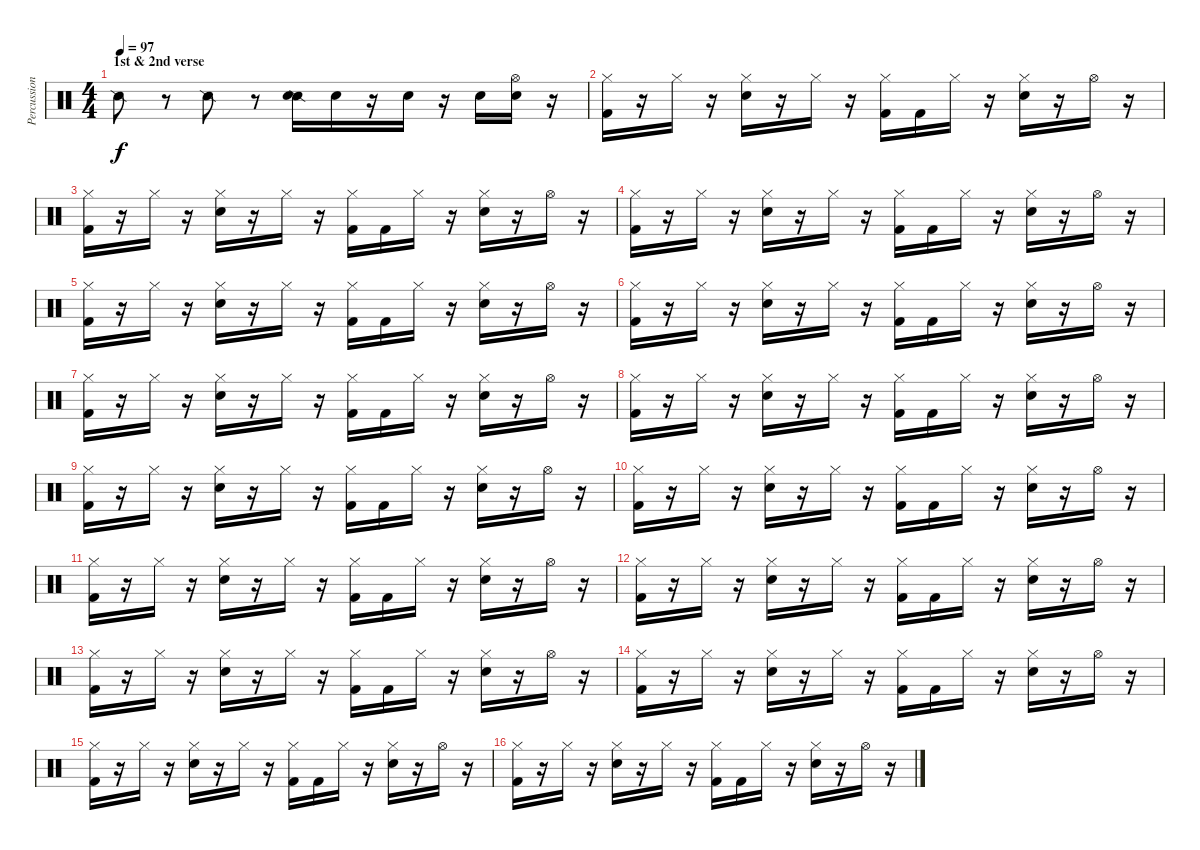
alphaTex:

\track ("Percussion" "Percussion") {instrument percussion}
\staff {score}
\articulation defaults
\ts (4 4)
\section ("" "1st & 2nd verse")
\tempo 97
\clef neutral
\ks c "Snare (side stick) 2".8{dy f}
r.8 "Snare (side stick) 2".8 r.8 ("Snare (side stick) 2" "Snare (hit) 2").16 "Snare (hit) 2".16 r.16 "Snare (hit) 2".16 r.16 "Snare (hit) 2".16 ("Hi-Hat (open)" "Snare (hit) 2").16 r.16 |
("Hi-Hat (closed)" "Kick (hit) 2").16 r.16 "Hi-Hat (closed)".16 r.16 ("Hi-Hat (closed)" "Snare (hit) 2").16 r.16 "Hi-Hat (closed)".16 r.16 ("Hi-Hat (closed)" "Kick (hit) 2").16 "Kick (hit) 2".16 "Hi-Hat (closed)".16 r.16 ("Hi-Hat (closed)" "Snare (hit) 2").16 r.16 "Hi-Hat (open)".16 r.16 |
("Hi-Hat (closed)" "Kick (hit) 2").16 r.16 "Hi-Hat (closed)".16 r.16 ("Hi-Hat (closed)" "Snare (hit) 2").16 r.16 "Hi-Hat (closed)".16 r.16 ("Hi-Hat (closed)" "Kick (hit) 2").16 "Kick (hit) 2".16 "Hi-Hat (closed)".16 r.16 ("Hi-Hat (closed)" "Snare (hit) 2").16 r.16 "Hi-Hat (open)".16 r.16 |
("Hi-Hat (closed)" "Kick (hit) 2").16 r.16 "Hi-Hat (closed)".16 r.16 ("Hi-Hat (closed)" "Snare (hit) 2").16 r.16 "Hi-Hat (closed)".16 r.16 ("Hi-Hat (closed)" "Kick (hit) 2").16 "Kick (hit) 2".16 "Hi-Hat (closed)".16 r.16 ("Hi-Hat (closed)" "Snare (hit) 2").16 r.16 "Hi-Hat (open)".16 r.16 |
("Hi-Hat (closed)" "Kick (hit) 2").16 r.16 "Hi-Hat (closed)".16 r.16 ("Hi-Hat (closed)" "Snare (hit) 2").16 r.16 "Hi-Hat (closed)".16 r.16 ("Hi-Hat (closed)" "Kick (hit) 2").16 "Kick (hit) 2".16 "Hi-Hat (closed)".16 r.16 ("Hi-Hat (closed)" "Snare (hit) 2").16 r.16 "Hi-Hat (open)".16 r.16 |
("Hi-Hat (closed)" "Kick (hit) 2").16 r.16 "Hi-Hat (closed)".16 r.16 ("Hi-Hat (closed)" "Snare (hit) 2").16 r.16 "Hi-Hat (closed)".16 r.16 ("Hi-Hat (closed)" "Kick (hit) 2").16 "Kick (hit) 2".16 "Hi-Hat (closed)".16 r.16 ("Hi-Hat (closed)" "Snare (hit) 2").16 r.16 "Hi-Hat (open)".16 r.16 |
("Hi-Hat (closed)" "Kick (hit) 2").16 r.16 "Hi-Hat (closed)".16 r.16 ("Hi-Hat (closed)" "Snare (hit) 2").16 r.16 "Hi-Hat (closed)".16 r.16 ("Hi-Hat (closed)" "Kick (hit) 2").16 "Kick (hit) 2".16 "Hi-Hat (closed)".16 r.16 ("Hi-Hat (closed)" "Snare (hit) 2").16 r.16 "Hi-Hat (open)".16 r.16 |
("Hi-Hat (closed)" "Kick (hit) 2").16 r.16 "Hi-Hat (closed)".16 r.16 ("Hi-Hat (closed)" "Snare (hit) 2").16 r.16 "Hi-Hat (closed)".16 r.16 ("Hi-Hat (closed)" "Kick (hit) 2").16 "Kick (hit) 2".16 "Hi-Hat (closed)".16 r.16 ("Hi-Hat (closed)" "Snare (hit) 2").16 r.16 "Hi-Hat (open)".16 r.16 |
("Hi-Hat (closed)" "Kick (hit) 2").16 r.16 "Hi-Hat (closed)".16 r.16 ("Hi-Hat (closed)" "Snare (hit) 2").16 r.16 "Hi-Hat (closed)".16 r.16 ("Hi-Hat (closed)" "Kick (hit) 2").16 "Kick (hit) 2".16 "Hi-Hat (closed)".16 r.16 ("Hi-Hat (closed)" "Snare (hit) 2").16 r.16 "Hi-Hat (open)".16 r.16 |
("Hi-Hat (closed)" "Kick (hit) 2").16 r.16 "Hi-Hat (closed)".16 r.16 ("Hi-Hat (closed)" "Snare (hit) 2").16 r.16 "Hi-Hat (closed)".16 r.16 ("Hi-Hat (closed)" "Kick (hit) 2").16 "Kick (hit) 2".16 "Hi-Hat (closed)".16 r.16 ("Hi-Hat (closed)" "Snare (hit) 2").16 r.16 "Hi-Hat (open)".16 r.16 |
("Hi-Hat (closed)" "Kick (hit) 2").16 r.16 "Hi-Hat (closed)".16 r.16 ("Hi-Hat (closed)" "Snare (hit) 2").16 r.16 "Hi-Hat (closed)".16 r.16 ("Hi-Hat (closed)" "Kick (hit) 2").16 "Kick (hit) 2".16 "Hi-Hat (closed)".16 r.16 ("Hi-Hat (closed)" "Snare (hit) 2").16 r.16 "Hi-Hat (open)".16 r.16 |
("Hi-Hat (closed)" "Kick (hit) 2").16 r.16 "Hi-Hat (closed)".16 r.16 ("Hi-Hat (closed)" "Snare (hit) 2").16 r.16 "Hi-Hat (closed)".16 r.16 ("Hi-Hat (closed)" "Kick (hit) 2").16 "Kick (hit) 2".16 "Hi-Hat (closed)".16 r.16 ("Hi-Hat (closed)" "Snare (hit) 2").16 r.16 "Hi-Hat (open)".16 r.16 |
("Hi-Hat (closed)" "Kick (hit) 2").16 r.16 "Hi-Hat (closed)".16 r.16 ("Hi-Hat (closed)" "Snare (hit) 2").16 r.16 "Hi-Hat (closed)".16 r.16 ("Hi-Hat (closed)" "Kick (hit) 2").16 "Kick (hit) 2".16 "Hi-Hat (closed)".16 r.16 ("Hi-Hat (closed)" "Snare (hit) 2").16 r.16 "Hi-Hat (open)".16 r.16 |
("Hi-Hat (closed)" "Kick (hit) 2").16 r.16 "Hi-Hat (closed)".16 r.16 ("Hi-Hat (closed)" "Snare (hit) 2").16 r.16 "Hi-Hat (closed)".16 r.16 ("Hi-Hat (closed)" "Kick (hit) 2").16 "Kick (hit) 2".16 "Hi-Hat (closed)".16 r.16 ("Hi-Hat (closed)" "Snare (hit) 2").16 r.16 "Hi-Hat (open)".16 r.16 |
("Hi-Hat (closed)" "Kick (hit) 2").16 r.16 "Hi-Hat (closed)".16 r.16 ("Hi-Hat (closed)" "Snare (hit) 2").16 r.16 "Hi-Hat (closed)".16 r.16 ("Hi-Hat (closed)" "Kick (hit) 2").16 "Kick (hit) 2".16 "Hi-Hat (closed)".16 r.16 ("Hi-Hat (closed)" "Snare (hit) 2").16 r.16 "Hi-Hat (open)".16 r.16 |
("Hi-Hat (closed)" "Kick (hit) 2").16 r.16 "Hi-Hat (closed)".16 r.16 ("Hi-Hat (closed)" "Snare (hit) 2").16 r.16 "Hi-Hat (closed)".16 r.16 ("Hi-Hat (closed)" "Kick (hit) 2").16 "Kick (hit) 2".16 "Hi-Hat (closed)".16 r.16 ("Hi-Hat (closed)" "Snare (hit) 2").16 r.16 "Hi-Hat (open)".16 r.16
